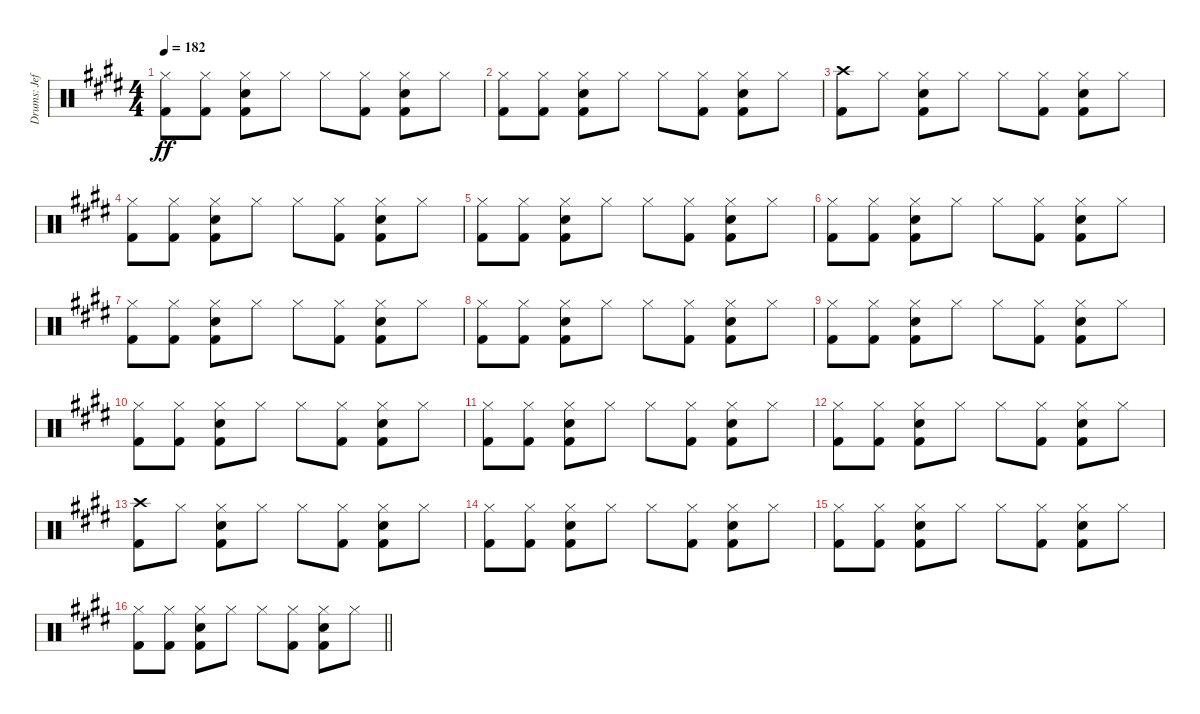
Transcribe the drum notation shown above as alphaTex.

\track ("Drums: Jeff" "Drums: Jef") {instrument percussion}
\staff {score}
\articulation defaults
\ts (4 4)
\tempo 182
\clef neutral
\ks e
("Hi-Hat (closed)" "Kick (hit) 2").8{dy ff} ("Hi-Hat (closed)" "Kick (hit) 2").8 ("Hi-Hat (closed)" "Electric Snare (hit)" "Kick (hit) 2").8 "Hi-Hat (closed)".8 "Hi-Hat (closed)".8 ("Hi-Hat (closed)" "Kick (hit) 2").8 ("Hi-Hat (closed)" "Electric Snare (hit)" "Kick (hit) 2").8 "Hi-Hat (closed)".8 |
("Hi-Hat (closed)" "Kick (hit) 2").8 ("Hi-Hat (closed)" "Kick (hit) 2").8 ("Hi-Hat (closed)" "Electric Snare (hit)" "Kick (hit) 2").8 "Hi-Hat (closed)".8 "Hi-Hat (closed)".8 ("Hi-Hat (closed)" "Kick (hit) 2").8 ("Hi-Hat (closed)" "Electric Snare (hit)" "Kick (hit) 2").8 "Hi-Hat (closed)".8 |
("Crash high (hit)" "Kick (hit) 2").8 "Hi-Hat (closed)".8 ("Hi-Hat (closed)" "Electric Snare (hit)" "Kick (hit) 2").8 "Hi-Hat (closed)".8 "Hi-Hat (closed)".8 ("Hi-Hat (closed)" "Kick (hit) 2").8 ("Hi-Hat (closed)" "Electric Snare (hit)" "Kick (hit) 2").8 "Hi-Hat (closed)".8 |
("Hi-Hat (closed)" "Kick (hit) 2").8 ("Hi-Hat (closed)" "Kick (hit) 2").8 ("Hi-Hat (closed)" "Electric Snare (hit)" "Kick (hit) 2").8 "Hi-Hat (closed)".8 "Hi-Hat (closed)".8 ("Hi-Hat (closed)" "Kick (hit) 2").8 ("Hi-Hat (closed)" "Electric Snare (hit)" "Kick (hit) 2").8 "Hi-Hat (closed)".8 |
("Hi-Hat (closed)" "Kick (hit) 2").8 ("Hi-Hat (closed)" "Kick (hit) 2").8 ("Hi-Hat (closed)" "Electric Snare (hit)" "Kick (hit) 2").8 "Hi-Hat (closed)".8 "Hi-Hat (closed)".8 ("Hi-Hat (closed)" "Kick (hit) 2").8 ("Hi-Hat (closed)" "Electric Snare (hit)" "Kick (hit) 2").8 "Hi-Hat (closed)".8 |
("Hi-Hat (closed)" "Kick (hit) 2").8 ("Hi-Hat (closed)" "Kick (hit) 2").8 ("Hi-Hat (closed)" "Electric Snare (hit)" "Kick (hit) 2").8 "Hi-Hat (closed)".8 "Hi-Hat (closed)".8 ("Hi-Hat (closed)" "Kick (hit) 2").8 ("Hi-Hat (closed)" "Electric Snare (hit)" "Kick (hit) 2").8 "Hi-Hat (closed)".8 |
("Hi-Hat (closed)" "Kick (hit) 2").8 ("Hi-Hat (closed)" "Kick (hit) 2").8 ("Hi-Hat (closed)" "Electric Snare (hit)" "Kick (hit) 2").8 "Hi-Hat (closed)".8 "Hi-Hat (closed)".8 ("Hi-Hat (closed)" "Kick (hit) 2").8 ("Hi-Hat (closed)" "Electric Snare (hit)" "Kick (hit) 2").8 "Hi-Hat (closed)".8 |
("Hi-Hat (closed)" "Kick (hit) 2").8 ("Hi-Hat (closed)" "Kick (hit) 2").8 ("Hi-Hat (closed)" "Electric Snare (hit)" "Kick (hit) 2").8 "Hi-Hat (closed)".8 "Hi-Hat (closed)".8 ("Hi-Hat (closed)" "Kick (hit) 2").8 ("Hi-Hat (closed)" "Electric Snare (hit)" "Kick (hit) 2").8 "Hi-Hat (closed)".8 |
("Hi-Hat (closed)" "Kick (hit) 2").8 ("Hi-Hat (closed)" "Kick (hit) 2").8 ("Hi-Hat (closed)" "Electric Snare (hit)" "Kick (hit) 2").8 "Hi-Hat (closed)".8 "Hi-Hat (closed)".8 ("Hi-Hat (closed)" "Kick (hit) 2").8 ("Hi-Hat (closed)" "Electric Snare (hit)" "Kick (hit) 2").8 "Hi-Hat (closed)".8 |
("Hi-Hat (closed)" "Kick (hit) 2").8 ("Hi-Hat (closed)" "Kick (hit) 2").8 ("Hi-Hat (closed)" "Electric Snare (hit)" "Kick (hit) 2").8 "Hi-Hat (closed)".8 "Hi-Hat (closed)".8 ("Hi-Hat (closed)" "Kick (hit) 2").8 ("Hi-Hat (closed)" "Electric Snare (hit)" "Kick (hit) 2").8 "Hi-Hat (closed)".8 |
("Hi-Hat (closed)" "Kick (hit) 2").8 ("Hi-Hat (closed)" "Kick (hit) 2").8 ("Hi-Hat (closed)" "Electric Snare (hit)" "Kick (hit) 2").8 "Hi-Hat (closed)".8 "Hi-Hat (closed)".8 ("Hi-Hat (closed)" "Kick (hit) 2").8 ("Hi-Hat (closed)" "Electric Snare (hit)" "Kick (hit) 2").8 "Hi-Hat (closed)".8 |
("Hi-Hat (closed)" "Kick (hit) 2").8 ("Hi-Hat (closed)" "Kick (hit) 2").8 ("Hi-Hat (closed)" "Electric Snare (hit)" "Kick (hit) 2").8 "Hi-Hat (closed)".8 "Hi-Hat (closed)".8 ("Hi-Hat (closed)" "Kick (hit) 2").8 ("Hi-Hat (closed)" "Electric Snare (hit)" "Kick (hit) 2").8 "Hi-Hat (closed)".8 |
("Crash high (hit)" "Kick (hit) 2").8 "Hi-Hat (closed)".8 ("Hi-Hat (closed)" "Electric Snare (hit)" "Kick (hit) 2").8 "Hi-Hat (closed)".8 "Hi-Hat (closed)".8 ("Hi-Hat (closed)" "Kick (hit) 2").8 ("Hi-Hat (closed)" "Electric Snare (hit)" "Kick (hit) 2").8 "Hi-Hat (closed)".8 |
("Hi-Hat (closed)" "Kick (hit) 2").8 ("Hi-Hat (closed)" "Kick (hit) 2").8 ("Hi-Hat (closed)" "Electric Snare (hit)" "Kick (hit) 2").8 "Hi-Hat (closed)".8 "Hi-Hat (closed)".8 ("Hi-Hat (closed)" "Kick (hit) 2").8 ("Hi-Hat (closed)" "Electric Snare (hit)" "Kick (hit) 2").8 "Hi-Hat (closed)".8 |
("Hi-Hat (closed)" "Kick (hit) 2").8 ("Hi-Hat (closed)" "Kick (hit) 2").8 ("Hi-Hat (closed)" "Electric Snare (hit)" "Kick (hit) 2").8 "Hi-Hat (closed)".8 "Hi-Hat (closed)".8 ("Hi-Hat (closed)" "Kick (hit) 2").8 ("Hi-Hat (closed)" "Electric Snare (hit)" "Kick (hit) 2").8 "Hi-Hat (closed)".8 |
\barLineRight lightlight
("Hi-Hat (closed)" "Kick (hit) 2").8 ("Hi-Hat (closed)" "Kick (hit) 2").8 ("Hi-Hat (closed)" "Electric Snare (hit)" "Kick (hit) 2").8 "Hi-Hat (closed)".8 "Hi-Hat (closed)".8 ("Hi-Hat (closed)" "Kick (hit) 2").8 ("Hi-Hat (closed)" "Electric Snare (hit)" "Kick (hit) 2").8 "Hi-Hat (closed)".8
